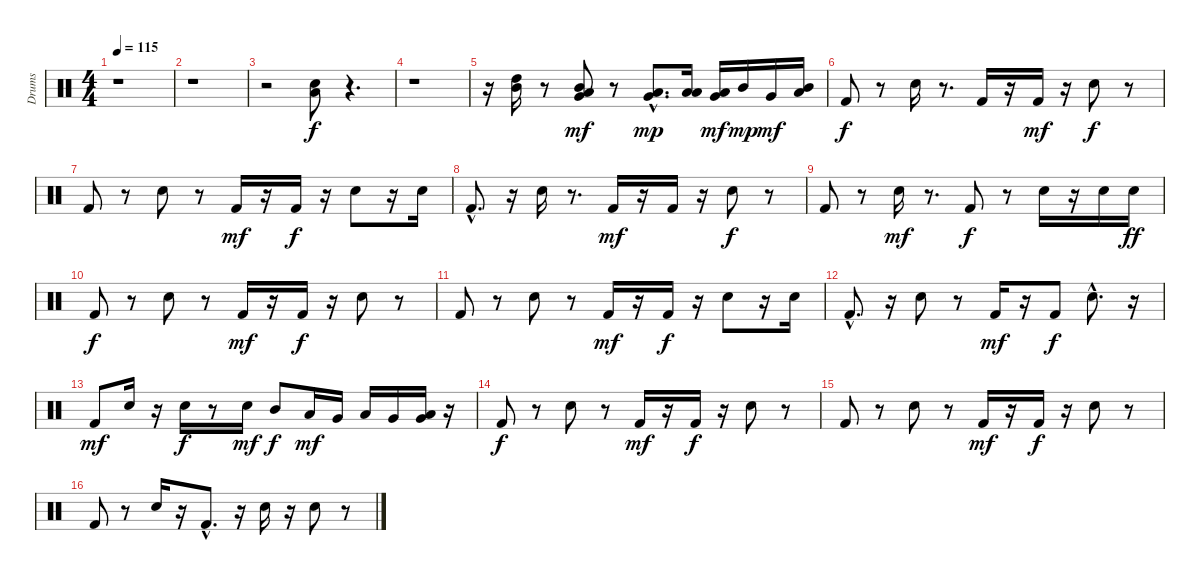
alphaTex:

\track ("Drums" "Drums") {instrument percussion}
\staff {score}
\articulation defaults
\ts (4 4)
\tempo 115
\clef neutral
\ks c
r.1{dy ff} |
r.1 |
r.2 ("Low Floor Tom (hit)" "Electric Snare (hit)").8{dy f} r.4{d} |
r.1 |
r.16 ("High Tom (hit)" "Mid Tom (hit)").16 r.8 ("Very Low Tom (hit)" "Mid Tom (hit)" "Low Tom (hit)").8{dy mf} r.8 ("Very Low Tom (hit)"{hac} "Low Tom (hit)"{hac}).8{d dy mp} ("Low Floor Tom (hit)" "Low Tom (hit)").16 ("Very Low Tom (hit)" "Low Tom (hit)").16{dy mf} "Mid Tom (hit)".16{dy mp} "Very Low Tom (hit)".16{dy mf} ("Low Tom (hit)" "Mid Tom (hit)").16 |
"Kick (hit) 2".8{dy f} r.8 "Electric Snare (hit)".16 r.8{d} "Kick (hit) 2".16 r.16 "Kick (hit) 2".16{dy mf} r.16 "Electric Snare (hit)".8{dy f} r.8 |
"Kick (hit) 2".8 r.8 "Electric Snare (hit)".8 r.8 "Kick (hit) 2".16{dy mf} r.16 "Kick (hit) 2".16{dy f} r.16 "Electric Snare (hit)".8 r.16 "Electric Snare (hit)".16 |
"Kick (hit) 2"{hac}.8{d} r.16 "Electric Snare (hit)".16 r.8{d} "Kick (hit) 2".16{dy mf} r.16 "Kick (hit) 2".16 r.16 "Electric Snare (hit)".8{dy f} r.8 |
"Kick (hit) 2".8 r.8 "Electric Snare (hit)".16{dy mf} r.8{d} "Kick (hit) 2".8{dy f} r.8 "Electric Snare (hit)".16 r.16 "Electric Snare (hit)".16 "Electric Snare (hit)".16{dy ff} |
"Kick (hit) 2".8{dy f} r.8 "Electric Snare (hit)".8 r.8 "Kick (hit) 2".16{dy mf} r.16 "Kick (hit) 2".16{dy f} r.16 "Electric Snare (hit)".8 r.8 |
"Kick (hit) 2".8 r.8 "Electric Snare (hit)".8 r.8 "Kick (hit) 2".16{dy mf} r.16 "Kick (hit) 2".16{dy f} r.16 "Electric Snare (hit)".8 r.16 "Electric Snare (hit)".16 |
"Kick (hit) 2"{hac}.8{d} r.16 "Electric Snare (hit)".8 r.8 "Kick (hit) 2".16{dy mf} r.16 "Kick (hit) 2".8{dy f} "Electric Snare (hit)"{hac}.8{d} r.16 |
"Kick (hit) 2".8{dy mf} "Electric Snare (hit)".16 r.16 "Electric Snare (hit)".16{dy f} r.8 "Electric Snare (hit)".16{dy mf} "Mid Tom (hit)".8{dy f} "Low Tom (hit)".16{dy mf} "Very Low Tom (hit)".16 "Low Tom (hit)".16 "Very Low Tom (hit)".16 ("Low Floor Tom (hit)" "Very Low Tom (hit)").16 r.16 |
"Kick (hit) 2".8{dy f} r.8 "Electric Snare (hit)".8 r.8 "Kick (hit) 2".16{dy mf} r.16 "Kick (hit) 2".16{dy f} r.16 "Electric Snare (hit)".8 r.8 |
"Kick (hit) 2".8 r.8 "Electric Snare (hit)".8 r.8 "Kick (hit) 2".16{dy mf} r.16 "Kick (hit) 2".16{dy f} r.16 "Electric Snare (hit)".8 r.8 |
"Kick (hit) 2".8 r.8 "Electric Snare (hit)".16 r.16 "Kick (hit) 2"{hac}.8{d} r.16 "Electric Snare (hit)".16 r.16 "Electric Snare (hit)".8 r.8
